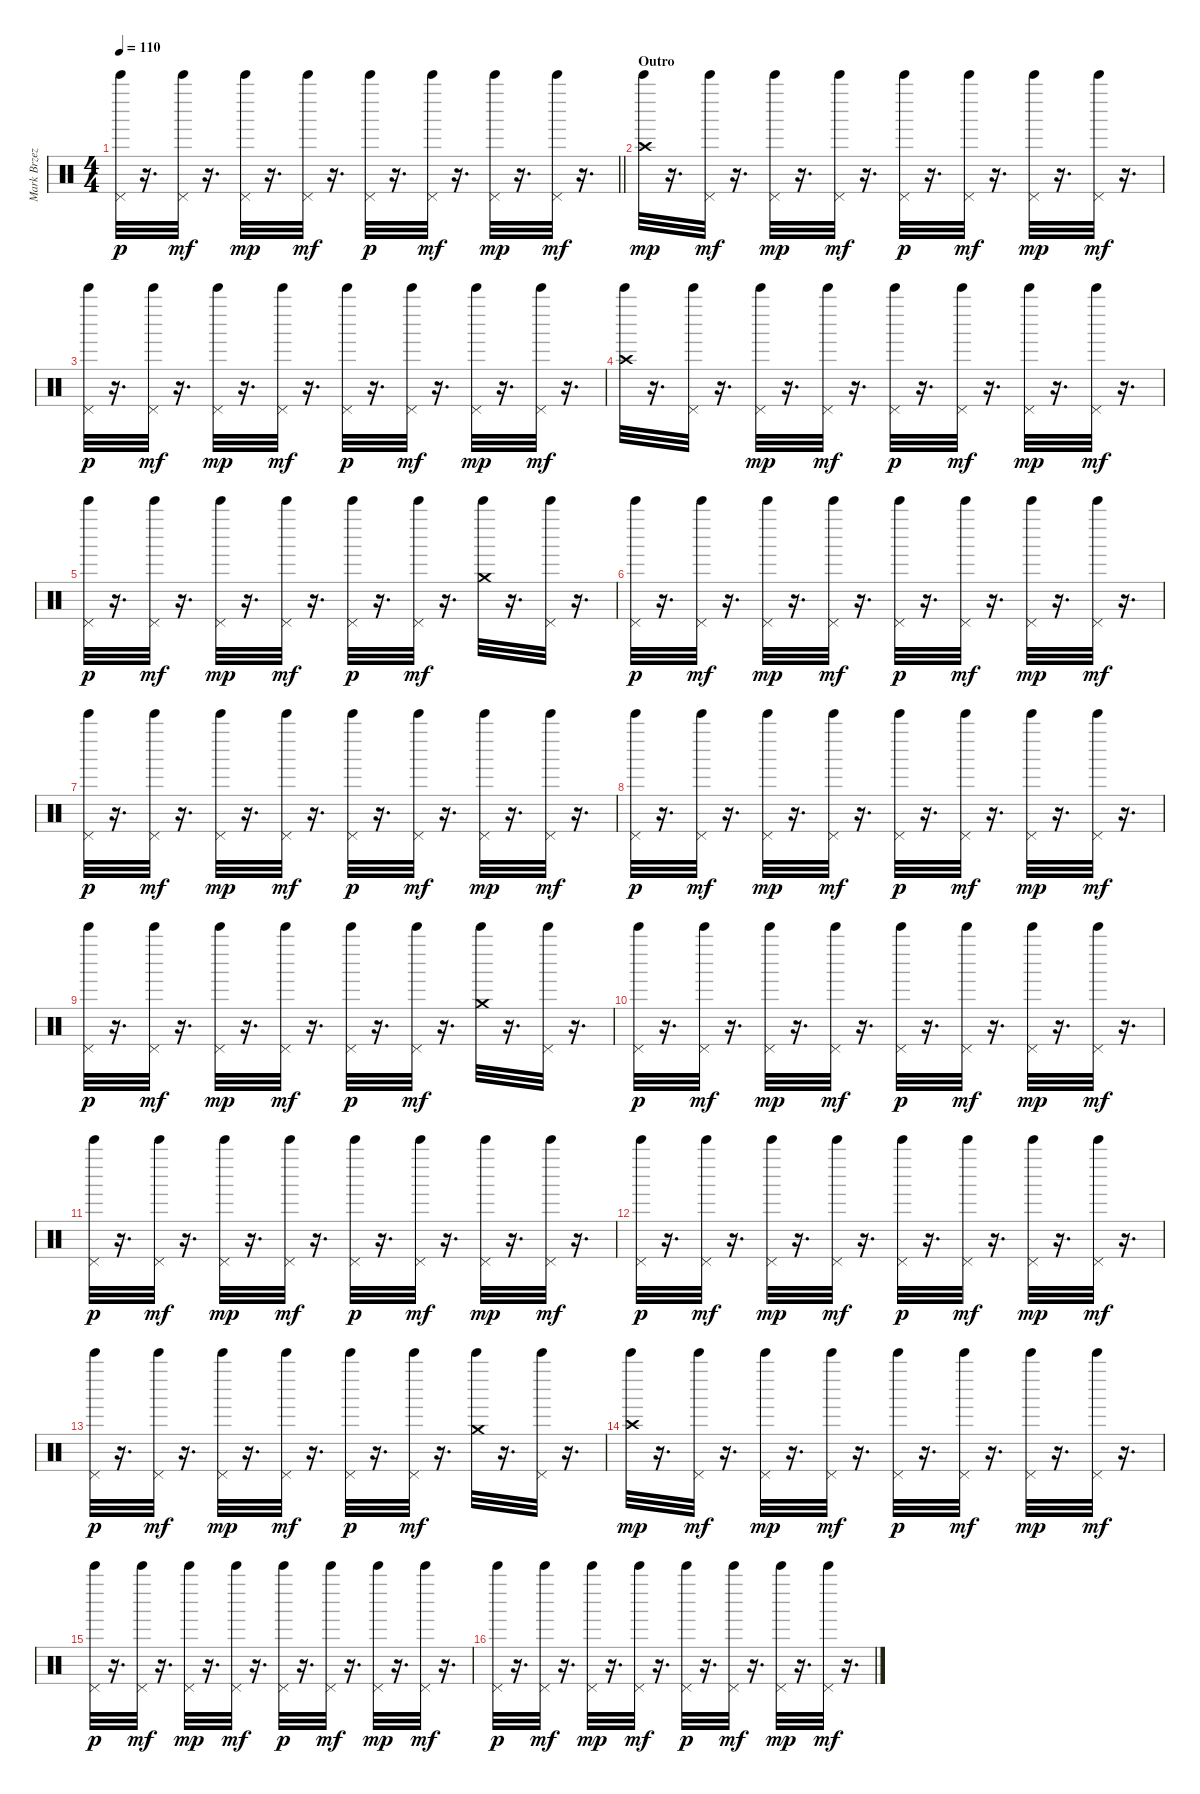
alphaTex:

\track ("Mark Brzezicki - Cymbal (Crash, Open & C" "Mark Brzez") {instrument percussion}
\staff {score}
\articulation defaults
\ts (4 4)
\tempo 110
\clef neutral
\barLineRight lightlight
\ks c
("Pedal Hi-Hat (hit)" "Bell Tree (hit)").32{dy p} r.16{d} ("Pedal Hi-Hat (hit)" "Bell Tree (hit)").32{dy mf} r.16{d} ("Pedal Hi-Hat (hit)" "Bell Tree (hit)").32{dy mp} r.16{d} ("Pedal Hi-Hat (hit)" "Bell Tree (hit)").32{dy mf} r.16{d} ("Pedal Hi-Hat (hit)" "Bell Tree (hit)").32{dy p} r.16{d} ("Pedal Hi-Hat (hit)" "Bell Tree (hit)").32{dy mf} r.16{d} ("Pedal Hi-Hat (hit)" "Bell Tree (hit)").32{dy mp} r.16{d} ("Pedal Hi-Hat (hit)" "Bell Tree (hit)").32{dy mf} r.16{d} |
\section ("" "Outro")
("Crash high (hit)" "Bell Tree (hit)").32{dy mp} r.16{d} ("Pedal Hi-Hat (hit)" "Bell Tree (hit)").32{dy mf} r.16{d} ("Pedal Hi-Hat (hit)" "Bell Tree (hit)").32{dy mp} r.16{d} ("Pedal Hi-Hat (hit)" "Bell Tree (hit)").32{dy mf} r.16{d} ("Pedal Hi-Hat (hit)" "Bell Tree (hit)").32{dy p} r.16{d} ("Pedal Hi-Hat (hit)" "Bell Tree (hit)").32{dy mf} r.16{d} ("Pedal Hi-Hat (hit)" "Bell Tree (hit)").32{dy mp} r.16{d} ("Pedal Hi-Hat (hit)" "Bell Tree (hit)").32{dy mf} r.16{d} |
("Pedal Hi-Hat (hit)" "Bell Tree (hit)").32{dy p} r.16{d} ("Pedal Hi-Hat (hit)" "Bell Tree (hit)").32{dy mf} r.16{d} ("Pedal Hi-Hat (hit)" "Bell Tree (hit)").32{dy mp} r.16{d} ("Pedal Hi-Hat (hit)" "Bell Tree (hit)").32{dy mf} r.16{d} ("Pedal Hi-Hat (hit)" "Bell Tree (hit)").32{dy p} r.16{d} ("Pedal Hi-Hat (hit)" "Bell Tree (hit)").32{dy mf} r.16{d} ("Pedal Hi-Hat (hit)" "Bell Tree (hit)").32{dy mp} r.16{d} ("Pedal Hi-Hat (hit)" "Bell Tree (hit)").32{dy mf} r.16{d} |
("Crash high (hit)" "Bell Tree (hit)").32 r.16{d} ("Pedal Hi-Hat (hit)" "Bell Tree (hit)").32 r.16{d} ("Pedal Hi-Hat (hit)" "Bell Tree (hit)").32{dy mp} r.16{d} ("Pedal Hi-Hat (hit)" "Bell Tree (hit)").32{dy mf} r.16{d} ("Pedal Hi-Hat (hit)" "Bell Tree (hit)").32{dy p} r.16{d} ("Pedal Hi-Hat (hit)" "Bell Tree (hit)").32{dy mf} r.16{d} ("Pedal Hi-Hat (hit)" "Bell Tree (hit)").32{dy mp} r.16{d} ("Pedal Hi-Hat (hit)" "Bell Tree (hit)").32{dy mf} r.16{d} |
("Pedal Hi-Hat (hit)" "Bell Tree (hit)").32{dy p} r.16{d} ("Pedal Hi-Hat (hit)" "Bell Tree (hit)").32{dy mf} r.16{d} ("Pedal Hi-Hat (hit)" "Bell Tree (hit)").32{dy mp} r.16{d} ("Pedal Hi-Hat (hit)" "Bell Tree (hit)").32{dy mf} r.16{d} ("Pedal Hi-Hat (hit)" "Bell Tree (hit)").32{dy p} r.16{d} ("Pedal Hi-Hat (hit)" "Bell Tree (hit)").32{dy mf} r.16{d} ("Crash medium (hit)" "Bell Tree (hit)").32 r.16{d} ("Pedal Hi-Hat (hit)" "Bell Tree (hit)").32 r.16{d} |
("Pedal Hi-Hat (hit)" "Bell Tree (hit)").32{dy p} r.16{d} ("Pedal Hi-Hat (hit)" "Bell Tree (hit)").32{dy mf} r.16{d} ("Pedal Hi-Hat (hit)" "Bell Tree (hit)").32{dy mp} r.16{d} ("Pedal Hi-Hat (hit)" "Bell Tree (hit)").32{dy mf} r.16{d} ("Pedal Hi-Hat (hit)" "Bell Tree (hit)").32{dy p} r.16{d} ("Pedal Hi-Hat (hit)" "Bell Tree (hit)").32{dy mf} r.16{d} ("Pedal Hi-Hat (hit)" "Bell Tree (hit)").32{dy mp} r.16{d} ("Pedal Hi-Hat (hit)" "Bell Tree (hit)").32{dy mf} r.16{d} |
("Pedal Hi-Hat (hit)" "Bell Tree (hit)").32{dy p} r.16{d} ("Pedal Hi-Hat (hit)" "Bell Tree (hit)").32{dy mf} r.16{d} ("Pedal Hi-Hat (hit)" "Bell Tree (hit)").32{dy mp} r.16{d} ("Pedal Hi-Hat (hit)" "Bell Tree (hit)").32{dy mf} r.16{d} ("Pedal Hi-Hat (hit)" "Bell Tree (hit)").32{dy p} r.16{d} ("Pedal Hi-Hat (hit)" "Bell Tree (hit)").32{dy mf} r.16{d} ("Pedal Hi-Hat (hit)" "Bell Tree (hit)").32{dy mp} r.16{d} ("Pedal Hi-Hat (hit)" "Bell Tree (hit)").32{dy mf} r.16{d} |
("Pedal Hi-Hat (hit)" "Bell Tree (hit)").32{dy p} r.16{d} ("Pedal Hi-Hat (hit)" "Bell Tree (hit)").32{dy mf} r.16{d} ("Pedal Hi-Hat (hit)" "Bell Tree (hit)").32{dy mp} r.16{d} ("Pedal Hi-Hat (hit)" "Bell Tree (hit)").32{dy mf} r.16{d} ("Pedal Hi-Hat (hit)" "Bell Tree (hit)").32{dy p} r.16{d} ("Pedal Hi-Hat (hit)" "Bell Tree (hit)").32{dy mf} r.16{d} ("Pedal Hi-Hat (hit)" "Bell Tree (hit)").32{dy mp} r.16{d} ("Pedal Hi-Hat (hit)" "Bell Tree (hit)").32{dy mf} r.16{d} |
("Pedal Hi-Hat (hit)" "Bell Tree (hit)").32{dy p} r.16{d} ("Pedal Hi-Hat (hit)" "Bell Tree (hit)").32{dy mf} r.16{d} ("Pedal Hi-Hat (hit)" "Bell Tree (hit)").32{dy mp} r.16{d} ("Pedal Hi-Hat (hit)" "Bell Tree (hit)").32{dy mf} r.16{d} ("Pedal Hi-Hat (hit)" "Bell Tree (hit)").32{dy p} r.16{d} ("Pedal Hi-Hat (hit)" "Bell Tree (hit)").32{dy mf} r.16{d} ("Crash medium (hit)" "Bell Tree (hit)").32 r.16{d} ("Pedal Hi-Hat (hit)" "Bell Tree (hit)").32 r.16{d} |
("Pedal Hi-Hat (hit)" "Bell Tree (hit)").32{dy p} r.16{d} ("Pedal Hi-Hat (hit)" "Bell Tree (hit)").32{dy mf} r.16{d} ("Pedal Hi-Hat (hit)" "Bell Tree (hit)").32{dy mp} r.16{d} ("Pedal Hi-Hat (hit)" "Bell Tree (hit)").32{dy mf} r.16{d} ("Pedal Hi-Hat (hit)" "Bell Tree (hit)").32{dy p} r.16{d} ("Pedal Hi-Hat (hit)" "Bell Tree (hit)").32{dy mf} r.16{d} ("Pedal Hi-Hat (hit)" "Bell Tree (hit)").32{dy mp} r.16{d} ("Pedal Hi-Hat (hit)" "Bell Tree (hit)").32{dy mf} r.16{d} |
("Pedal Hi-Hat (hit)" "Bell Tree (hit)").32{dy p} r.16{d} ("Pedal Hi-Hat (hit)" "Bell Tree (hit)").32{dy mf} r.16{d} ("Pedal Hi-Hat (hit)" "Bell Tree (hit)").32{dy mp} r.16{d} ("Pedal Hi-Hat (hit)" "Bell Tree (hit)").32{dy mf} r.16{d} ("Pedal Hi-Hat (hit)" "Bell Tree (hit)").32{dy p} r.16{d} ("Pedal Hi-Hat (hit)" "Bell Tree (hit)").32{dy mf} r.16{d} ("Pedal Hi-Hat (hit)" "Bell Tree (hit)").32{dy mp} r.16{d} ("Pedal Hi-Hat (hit)" "Bell Tree (hit)").32{dy mf} r.16{d} |
("Pedal Hi-Hat (hit)" "Bell Tree (hit)").32{dy p} r.16{d} ("Pedal Hi-Hat (hit)" "Bell Tree (hit)").32{dy mf} r.16{d} ("Pedal Hi-Hat (hit)" "Bell Tree (hit)").32{dy mp} r.16{d} ("Pedal Hi-Hat (hit)" "Bell Tree (hit)").32{dy mf} r.16{d} ("Pedal Hi-Hat (hit)" "Bell Tree (hit)").32{dy p} r.16{d} ("Pedal Hi-Hat (hit)" "Bell Tree (hit)").32{dy mf} r.16{d} ("Pedal Hi-Hat (hit)" "Bell Tree (hit)").32{dy mp} r.16{d} ("Pedal Hi-Hat (hit)" "Bell Tree (hit)").32{dy mf} r.16{d} |
("Pedal Hi-Hat (hit)" "Bell Tree (hit)").32{dy p} r.16{d} ("Pedal Hi-Hat (hit)" "Bell Tree (hit)").32{dy mf} r.16{d} ("Pedal Hi-Hat (hit)" "Bell Tree (hit)").32{dy mp} r.16{d} ("Pedal Hi-Hat (hit)" "Bell Tree (hit)").32{dy mf} r.16{d} ("Pedal Hi-Hat (hit)" "Bell Tree (hit)").32{dy p} r.16{d} ("Pedal Hi-Hat (hit)" "Bell Tree (hit)").32{dy mf} r.16{d} ("Crash medium (hit)" "Bell Tree (hit)").32 r.16{d} ("Pedal Hi-Hat (hit)" "Bell Tree (hit)").32 r.16{d} |
("Crash high (hit)" "Bell Tree (hit)").32{dy mp} r.16{d} ("Pedal Hi-Hat (hit)" "Bell Tree (hit)").32{dy mf} r.16{d} ("Pedal Hi-Hat (hit)" "Bell Tree (hit)").32{dy mp} r.16{d} ("Pedal Hi-Hat (hit)" "Bell Tree (hit)").32{dy mf} r.16{d} ("Pedal Hi-Hat (hit)" "Bell Tree (hit)").32{dy p} r.16{d} ("Pedal Hi-Hat (hit)" "Bell Tree (hit)").32{dy mf} r.16{d} ("Pedal Hi-Hat (hit)" "Bell Tree (hit)").32{dy mp} r.16{d} ("Pedal Hi-Hat (hit)" "Bell Tree (hit)").32{dy mf} r.16{d} |
("Pedal Hi-Hat (hit)" "Bell Tree (hit)").32{dy p} r.16{d} ("Pedal Hi-Hat (hit)" "Bell Tree (hit)").32{dy mf} r.16{d} ("Pedal Hi-Hat (hit)" "Bell Tree (hit)").32{dy mp} r.16{d} ("Pedal Hi-Hat (hit)" "Bell Tree (hit)").32{dy mf} r.16{d} ("Pedal Hi-Hat (hit)" "Bell Tree (hit)").32{dy p} r.16{d} ("Pedal Hi-Hat (hit)" "Bell Tree (hit)").32{dy mf} r.16{d} ("Pedal Hi-Hat (hit)" "Bell Tree (hit)").32{dy mp} r.16{d} ("Pedal Hi-Hat (hit)" "Bell Tree (hit)").32{dy mf} r.16{d} |
("Pedal Hi-Hat (hit)" "Bell Tree (hit)").32{dy p} r.16{d} ("Pedal Hi-Hat (hit)" "Bell Tree (hit)").32{dy mf} r.16{d} ("Pedal Hi-Hat (hit)" "Bell Tree (hit)").32{dy mp} r.16{d} ("Pedal Hi-Hat (hit)" "Bell Tree (hit)").32{dy mf} r.16{d} ("Pedal Hi-Hat (hit)" "Bell Tree (hit)").32{dy p} r.16{d} ("Pedal Hi-Hat (hit)" "Bell Tree (hit)").32{dy mf} r.16{d} ("Pedal Hi-Hat (hit)" "Bell Tree (hit)").32{dy mp} r.16{d} ("Pedal Hi-Hat (hit)" "Bell Tree (hit)").32{dy mf} r.16{d}
